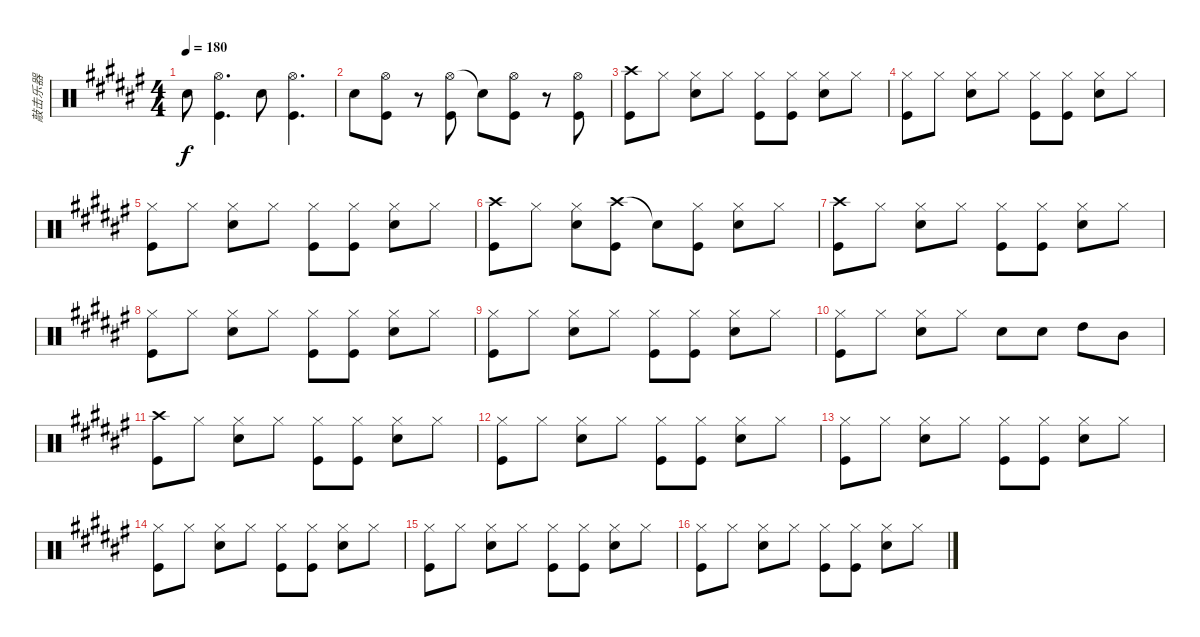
\track ("敲击乐器" "敲击乐器") {instrument percussion}
\staff {score}
\articulation defaults
\ts (4 4)
\tempo 180
\clef neutral
\ks f# "Electric Snare (hit)".8{dy f}
("Hi-Hat (open)" "Kick (hit)").4{d} "Electric Snare (hit)".8 ("Hi-Hat (open)" "Kick (hit)").4{d} |
"Electric Snare (hit)".8 ("Hi-Hat (open)" "Kick (hit)").8 r.8 ("Hi-Hat (open)" "Kick (hit)").8 "Snare (hit)"{t}.8 ("Hi-Hat (open)" "Kick (hit)").8 r.8 ("Hi-Hat (open)" "Kick (hit)").8 |
("Crash high (hit)" "Kick (hit)").8 "Hi-Hat (closed)".8 ("Hi-Hat (closed)" "Electric Snare (hit)").8 "Hi-Hat (closed)".8 ("Hi-Hat (closed)" "Kick (hit)").8 ("Hi-Hat (closed)" "Kick (hit)").8 ("Hi-Hat (closed)" "Electric Snare (hit)").8 "Hi-Hat (closed)".8 |
("Hi-Hat (closed)" "Kick (hit)").8 "Hi-Hat (closed)".8 ("Hi-Hat (closed)" "Electric Snare (hit)").8 "Hi-Hat (closed)".8 ("Hi-Hat (closed)" "Kick (hit)").8 ("Hi-Hat (closed)" "Kick (hit)").8 ("Hi-Hat (closed)" "Electric Snare (hit)").8 "Hi-Hat (closed)".8 |
("Hi-Hat (closed)" "Kick (hit)").8 "Hi-Hat (closed)".8 ("Hi-Hat (closed)" "Electric Snare (hit)").8 "Hi-Hat (closed)".8 ("Hi-Hat (closed)" "Kick (hit)").8 ("Hi-Hat (closed)" "Kick (hit)").8 ("Hi-Hat (closed)" "Electric Snare (hit)").8 "Hi-Hat (closed)".8 |
("Crash high (hit)" "Kick (hit)").8 "Hi-Hat (closed)".8 ("Hi-Hat (closed)" "Electric Snare (hit)").8 ("Crash high (hit)" "Kick (hit)").8 "Snare (hit)"{t}.8 ("Hi-Hat (closed)" "Kick (hit)").8 ("Hi-Hat (closed)" "Electric Snare (hit)").8 "Hi-Hat (closed)".8 |
("Crash high (hit)" "Kick (hit)").8 "Hi-Hat (closed)".8 ("Hi-Hat (closed)" "Electric Snare (hit)").8 "Hi-Hat (closed)".8 ("Hi-Hat (closed)" "Kick (hit)").8 ("Hi-Hat (closed)" "Kick (hit)").8 ("Hi-Hat (closed)" "Electric Snare (hit)").8 "Hi-Hat (closed)".8 |
("Hi-Hat (closed)" "Kick (hit)").8 "Hi-Hat (closed)".8 ("Hi-Hat (closed)" "Electric Snare (hit)").8 "Hi-Hat (closed)".8 ("Hi-Hat (closed)" "Kick (hit)").8 ("Hi-Hat (closed)" "Kick (hit)").8 ("Hi-Hat (closed)" "Electric Snare (hit)").8 "Hi-Hat (closed)".8 |
("Hi-Hat (closed)" "Kick (hit)").8 "Hi-Hat (closed)".8 ("Hi-Hat (closed)" "Electric Snare (hit)").8 "Hi-Hat (closed)".8 ("Hi-Hat (closed)" "Kick (hit)").8 ("Hi-Hat (closed)" "Kick (hit)").8 ("Hi-Hat (closed)" "Electric Snare (hit)").8 "Hi-Hat (closed)".8 |
("Hi-Hat (closed)" "Kick (hit)").8 "Hi-Hat (closed)".8 ("Hi-Hat (closed)" "Electric Snare (hit)").8 "Hi-Hat (closed)".8 "Electric Snare (hit)".8 "Electric Snare (hit)".8 "High Tom (hit)".8 "Mid Tom (hit)".8 |
("Crash high (hit)" "Kick (hit)").8 "Hi-Hat (closed)".8 ("Hi-Hat (closed)" "Electric Snare (hit)").8 "Hi-Hat (closed)".8 ("Hi-Hat (closed)" "Kick (hit)").8 ("Hi-Hat (closed)" "Kick (hit)").8 ("Hi-Hat (closed)" "Electric Snare (hit)").8 "Hi-Hat (closed)".8 |
("Hi-Hat (closed)" "Kick (hit)").8 "Hi-Hat (closed)".8 ("Hi-Hat (closed)" "Electric Snare (hit)").8 "Hi-Hat (closed)".8 ("Hi-Hat (closed)" "Kick (hit)").8 ("Hi-Hat (closed)" "Kick (hit)").8 ("Hi-Hat (closed)" "Electric Snare (hit)").8 "Hi-Hat (closed)".8 |
("Hi-Hat (closed)" "Kick (hit)").8 "Hi-Hat (closed)".8 ("Hi-Hat (closed)" "Electric Snare (hit)").8 "Hi-Hat (closed)".8 ("Hi-Hat (closed)" "Kick (hit)").8 ("Hi-Hat (closed)" "Kick (hit)").8 ("Hi-Hat (closed)" "Electric Snare (hit)").8 "Hi-Hat (closed)".8 |
("Hi-Hat (closed)" "Kick (hit)").8 "Hi-Hat (closed)".8 ("Hi-Hat (closed)" "Electric Snare (hit)").8 "Hi-Hat (closed)".8 ("Hi-Hat (closed)" "Kick (hit)").8 ("Hi-Hat (closed)" "Kick (hit)").8 ("Hi-Hat (closed)" "Electric Snare (hit)").8 "Hi-Hat (closed)".8 |
("Hi-Hat (closed)" "Kick (hit)").8 "Hi-Hat (closed)".8 ("Hi-Hat (closed)" "Electric Snare (hit)").8 "Hi-Hat (closed)".8 ("Hi-Hat (closed)" "Kick (hit)").8 ("Hi-Hat (closed)" "Kick (hit)").8 ("Hi-Hat (closed)" "Electric Snare (hit)").8 "Hi-Hat (closed)".8 |
("Hi-Hat (closed)" "Kick (hit)").8 "Hi-Hat (closed)".8 ("Hi-Hat (closed)" "Electric Snare (hit)").8 "Hi-Hat (closed)".8 ("Hi-Hat (closed)" "Kick (hit)").8 ("Hi-Hat (closed)" "Kick (hit)").8 ("Hi-Hat (closed)" "Electric Snare (hit)").8 "Hi-Hat (closed)".8
